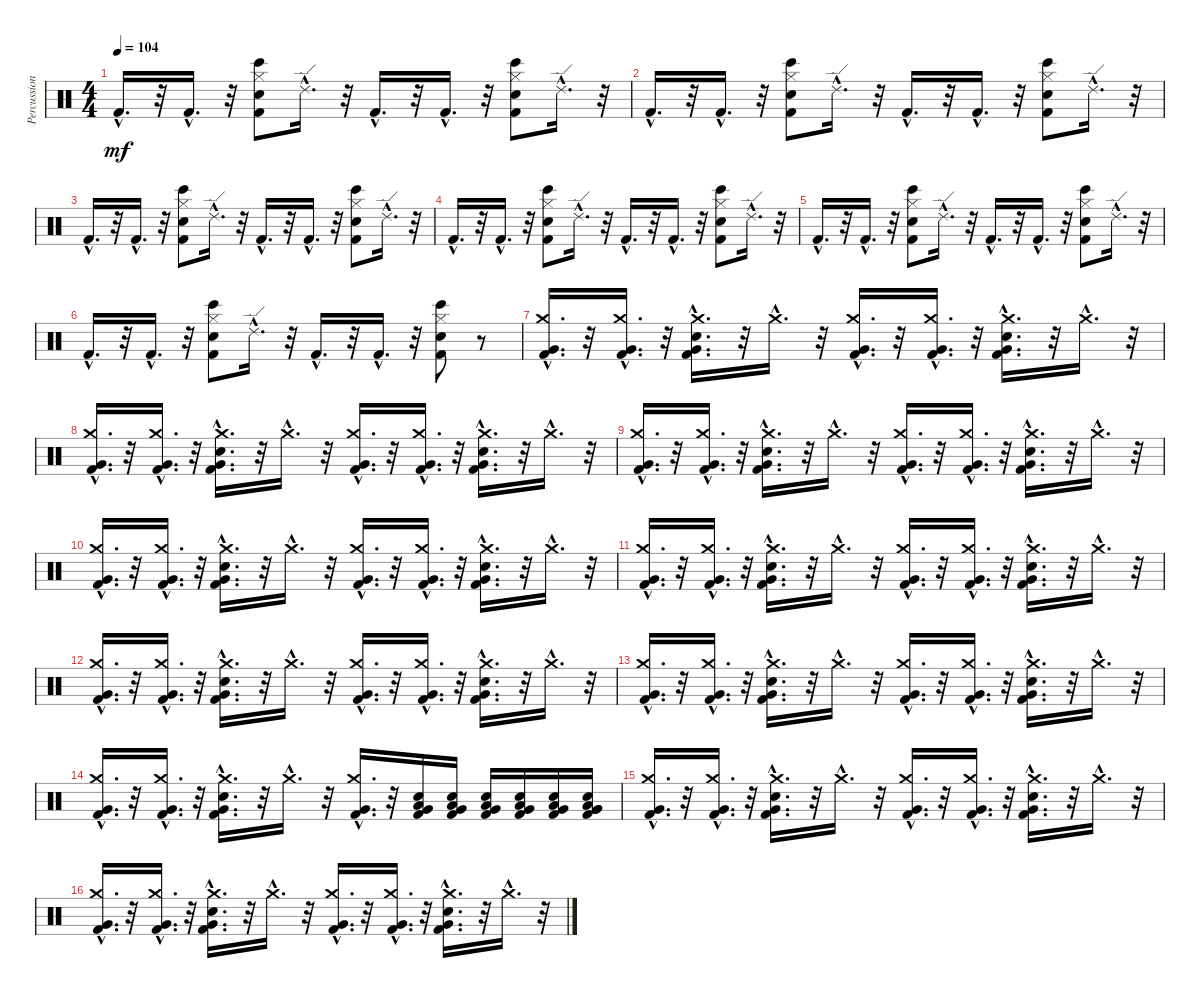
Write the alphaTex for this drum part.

\track ("Percussion" "Percussion") {instrument percussion}
\staff {score}
\articulation defaults
\ts (4 4)
\tempo 104
\clef neutral
\ks c "Kick (hit) 2"{hac}.16{d dy mf}
r.32 "Kick (hit) 2"{hac}.16{d} r.32 ("Hand Clap (hit)" "Kick (hit) 2" "Hi-Hat (closed)" "Bongo High (hit)").8 "Ride (edge) 2"{hac}.16{d} r.32 "Kick (hit) 2"{hac}.16{d} r.32 "Kick (hit) 2"{hac}.16{d} r.32 ("Bongo High (hit)" "Hi-Hat (closed)" "Hand Clap (hit)" "Kick (hit) 2").8 "Ride (edge) 2"{hac}.16{d} r.32 |
"Kick (hit) 2"{hac}.16{d} r.32 "Kick (hit) 2"{hac}.16{d} r.32 ("Kick (hit) 2" "Hand Clap (hit)" "Hi-Hat (closed)" "Bongo High (hit)").8 "Ride (edge) 2"{hac}.16{d} r.32 "Kick (hit) 2"{hac}.16{d} r.32 "Kick (hit) 2"{hac}.16{d} r.32 ("Bongo High (hit)" "Hi-Hat (closed)" "Hand Clap (hit)" "Kick (hit) 2").8 "Ride (edge) 2"{hac}.16{d} r.32 |
"Kick (hit) 2"{hac}.16{d} r.32 "Kick (hit) 2"{hac}.16{d} r.32 ("Kick (hit) 2" "Hand Clap (hit)" "Hi-Hat (closed)" "Bongo High (hit)").8 "Ride (edge) 2"{hac}.16{d} r.32 "Kick (hit) 2"{hac}.16{d} r.32 "Kick (hit) 2"{hac}.16{d} r.32 ("Hi-Hat (closed)" "Hand Clap (hit)" "Kick (hit) 2" "Bongo High (hit)").8 "Ride (edge) 2"{hac}.16{d} r.32 |
"Kick (hit) 2"{hac}.16{d} r.32 "Kick (hit) 2"{hac}.16{d} r.32 ("Kick (hit) 2" "Hand Clap (hit)" "Hi-Hat (closed)" "Bongo High (hit)").8 "Ride (edge) 2"{hac}.16{d} r.32 "Kick (hit) 2"{hac}.16{d} r.32 "Kick (hit) 2"{hac}.16{d} r.32 ("Bongo High (hit)" "Hi-Hat (closed)" "Hand Clap (hit)" "Kick (hit) 2").8 "Ride (edge) 2"{hac}.16{d} r.32 |
"Kick (hit) 2"{hac}.16{d} r.32 "Kick (hit) 2"{hac}.16{d} r.32 ("Kick (hit) 2" "Hand Clap (hit)" "Hi-Hat (closed)" "Bongo High (hit)").8 "Ride (edge) 2"{hac}.16{d} r.32 "Kick (hit) 2"{hac}.16{d} r.32 "Kick (hit) 2"{hac}.16{d} r.32 ("Bongo High (hit)" "Hi-Hat (closed)" "Hand Clap (hit)" "Kick (hit) 2").8 "Ride (edge) 2"{hac}.16{d} r.32 |
"Kick (hit) 2"{hac}.16{d} r.32 "Kick (hit) 2"{hac}.16{d} r.32 ("Kick (hit) 2" "Hand Clap (hit)" "Hi-Hat (closed)" "Bongo High (hit)").8 "Ride (edge) 2"{hac}.16{d} r.32 "Kick (hit) 2"{hac}.16{d} r.32 "Kick (hit) 2"{hac}.16{d} r.32 ("Bongo High (hit)" "Hi-Hat (closed)" "Hand Clap (hit)" "Kick (hit) 2").8 r.8 |
("Crash medium (hit)"{hac} "Very Low Tom (hit)"{hac} "Kick (hit) 2"{hac}).16{d} r.32 ("Crash medium (hit)"{hac} "Very Low Tom (hit)"{hac} "Kick (hit) 2"{hac}).16{d} r.32 ("Very Low Tom (hit)"{hac} "Crash medium (hit)"{hac} "Kick (hit) 2"{hac} "Electric Snare (hit)"{hac}).16{d} r.32 "Crash medium (hit)"{hac}.16{d} r.32 ("Crash medium (hit)"{hac} "Very Low Tom (hit)"{hac} "Kick (hit) 2"{hac}).16{d} r.32 ("Crash medium (hit)"{hac} "Very Low Tom (hit)"{hac} "Kick (hit) 2"{hac}).16{d} r.32 ("Very Low Tom (hit)"{hac} "Crash medium (hit)"{hac} "Kick (hit) 2"{hac} "Electric Snare (hit)"{hac}).16{d} r.32 "Crash medium (hit)"{hac}.16{d} r.32 |
("Crash medium (hit)"{hac} "Very Low Tom (hit)"{hac} "Kick (hit) 2"{hac}).16{d} r.32 ("Crash medium (hit)"{hac} "Very Low Tom (hit)"{hac} "Kick (hit) 2"{hac}).16{d} r.32 ("Very Low Tom (hit)"{hac} "Crash medium (hit)"{hac} "Kick (hit) 2"{hac} "Electric Snare (hit)"{hac}).16{d} r.32 "Crash medium (hit)"{hac}.16{d} r.32 ("Crash medium (hit)"{hac} "Very Low Tom (hit)"{hac} "Kick (hit) 2"{hac}).16{d} r.32 ("Crash medium (hit)"{hac} "Very Low Tom (hit)"{hac} "Kick (hit) 2"{hac}).16{d} r.32 ("Very Low Tom (hit)"{hac} "Crash medium (hit)"{hac} "Kick (hit) 2"{hac} "Electric Snare (hit)"{hac}).16{d} r.32 "Crash medium (hit)"{hac}.16{d} r.32 |
("Crash medium (hit)"{hac} "Very Low Tom (hit)"{hac} "Kick (hit) 2"{hac}).16{d} r.32 ("Crash medium (hit)"{hac} "Very Low Tom (hit)"{hac} "Kick (hit) 2"{hac}).16{d} r.32 ("Very Low Tom (hit)"{hac} "Crash medium (hit)"{hac} "Kick (hit) 2"{hac} "Electric Snare (hit)"{hac}).16{d} r.32 "Crash medium (hit)"{hac}.16{d} r.32 ("Crash medium (hit)"{hac} "Very Low Tom (hit)"{hac} "Kick (hit) 2"{hac}).16{d} r.32 ("Crash medium (hit)"{hac} "Very Low Tom (hit)"{hac} "Kick (hit) 2"{hac}).16{d} r.32 ("Very Low Tom (hit)"{hac} "Crash medium (hit)"{hac} "Kick (hit) 2"{hac} "Electric Snare (hit)"{hac}).16{d} r.32 "Crash medium (hit)"{hac}.16{d} r.32 |
("Crash medium (hit)"{hac} "Very Low Tom (hit)"{hac} "Kick (hit) 2"{hac}).16{d} r.32 ("Crash medium (hit)"{hac} "Very Low Tom (hit)"{hac} "Kick (hit) 2"{hac}).16{d} r.32 ("Very Low Tom (hit)"{hac} "Crash medium (hit)"{hac} "Kick (hit) 2"{hac} "Electric Snare (hit)"{hac}).16{d} r.32 "Crash medium (hit)"{hac}.16{d} r.32 ("Crash medium (hit)"{hac} "Very Low Tom (hit)"{hac} "Kick (hit) 2"{hac}).16{d} r.32 ("Crash medium (hit)"{hac} "Very Low Tom (hit)"{hac} "Kick (hit) 2"{hac}).16{d} r.32 ("Very Low Tom (hit)"{hac} "Crash medium (hit)"{hac} "Kick (hit) 2"{hac} "Electric Snare (hit)"{hac}).16{d} r.32 "Crash medium (hit)"{hac}.16{d} r.32 |
("Crash medium (hit)"{hac} "Very Low Tom (hit)"{hac} "Kick (hit) 2"{hac}).16{d} r.32 ("Crash medium (hit)"{hac} "Very Low Tom (hit)"{hac} "Kick (hit) 2"{hac}).16{d} r.32 ("Very Low Tom (hit)"{hac} "Crash medium (hit)"{hac} "Kick (hit) 2"{hac} "Electric Snare (hit)"{hac}).16{d} r.32 "Crash medium (hit)"{hac}.16{d} r.32 ("Crash medium (hit)"{hac} "Very Low Tom (hit)"{hac} "Kick (hit) 2"{hac}).16{d} r.32 ("Crash medium (hit)"{hac} "Very Low Tom (hit)"{hac} "Kick (hit) 2"{hac}).16{d} r.32 ("Very Low Tom (hit)"{hac} "Crash medium (hit)"{hac} "Kick (hit) 2"{hac} "Electric Snare (hit)"{hac}).16{d} r.32 "Crash medium (hit)"{hac}.16{d} r.32 |
("Crash medium (hit)"{hac} "Very Low Tom (hit)"{hac} "Kick (hit) 2"{hac}).16{d} r.32 ("Crash medium (hit)"{hac} "Very Low Tom (hit)"{hac} "Kick (hit) 2"{hac}).16{d} r.32 ("Very Low Tom (hit)"{hac} "Crash medium (hit)"{hac} "Kick (hit) 2"{hac} "Electric Snare (hit)"{hac}).16{d} r.32 "Crash medium (hit)"{hac}.16{d} r.32 ("Crash medium (hit)"{hac} "Very Low Tom (hit)"{hac} "Kick (hit) 2"{hac}).16{d} r.32 ("Crash medium (hit)"{hac} "Very Low Tom (hit)"{hac} "Kick (hit) 2"{hac}).16{d} r.32 ("Very Low Tom (hit)"{hac} "Crash medium (hit)"{hac} "Kick (hit) 2"{hac} "Electric Snare (hit)"{hac}).16{d} r.32 "Crash medium (hit)"{hac}.16{d} r.32 |
("Crash medium (hit)"{hac} "Very Low Tom (hit)"{hac} "Kick (hit) 2"{hac}).16{d} r.32 ("Crash medium (hit)"{hac} "Very Low Tom (hit)"{hac} "Kick (hit) 2"{hac}).16{d} r.32 ("Very Low Tom (hit)"{hac} "Crash medium (hit)"{hac} "Kick (hit) 2"{hac} "Electric Snare (hit)"{hac}).16{d} r.32 "Crash medium (hit)"{hac}.16{d} r.32 ("Crash medium (hit)"{hac} "Very Low Tom (hit)"{hac} "Kick (hit) 2"{hac}).16{d} r.32 ("Crash medium (hit)"{hac} "Very Low Tom (hit)"{hac} "Kick (hit) 2"{hac}).16{d} r.32 ("Very Low Tom (hit)"{hac} "Crash medium (hit)"{hac} "Kick (hit) 2"{hac} "Electric Snare (hit)"{hac}).16{d} r.32 "Crash medium (hit)"{hac}.16{d} r.32 |
("Crash medium (hit)"{hac} "Kick (hit) 2"{hac} "Very Low Tom (hit)"{hac}).16{d} r.32 ("Kick (hit) 2"{hac} "Very Low Tom (hit)"{hac} "Crash medium (hit)"{hac}).16{d} r.32 ("Very Low Tom (hit)"{hac} "Electric Snare (hit)"{hac} "Crash medium (hit)"{hac} "Kick (hit) 2"{hac}).16{d} r.32 "Crash medium (hit)"{hac}.16{d} r.32 ("Very Low Tom (hit)"{hac} "Kick (hit) 2"{hac} "Crash medium (hit)"{hac}).16{d} r.32 ("Low Floor Tom (hit)" "Kick (hit) 2" "Electric Snare (hit)" "Very Low Tom (hit)").16 ("Low Floor Tom (hit)" "Kick (hit) 2" "Electric Snare (hit)" "Very Low Tom (hit)").16 ("Low Floor Tom (hit)" "Kick (hit) 2" "Electric Snare (hit)" "Very Low Tom (hit)").16 ("Low Floor Tom (hit)" "Kick (hit) 2" "Electric Snare (hit)" "Very Low Tom (hit)").16 ("Low Floor Tom (hit)" "Kick (hit) 2" "Electric Snare (hit)" "Very Low Tom (hit)").16 ("Low Floor Tom (hit)" "Very Low Tom (hit)" "Kick (hit) 2" "Electric Snare (hit)" "Very Low Tom (hit)").16 |
("Crash medium (hit)"{hac} "Very Low Tom (hit)"{hac} "Kick (hit) 2"{hac}).16{d} r.32 ("Crash medium (hit)"{hac} "Very Low Tom (hit)"{hac} "Kick (hit) 2"{hac}).16{d} r.32 ("Very Low Tom (hit)"{hac} "Crash medium (hit)"{hac} "Kick (hit) 2"{hac} "Electric Snare (hit)"{hac}).16{d} r.32 "Crash medium (hit)"{hac}.16{d} r.32 ("Crash medium (hit)"{hac} "Very Low Tom (hit)"{hac} "Kick (hit) 2"{hac}).16{d} r.32 ("Crash medium (hit)"{hac} "Very Low Tom (hit)"{hac} "Kick (hit) 2"{hac}).16{d} r.32 ("Very Low Tom (hit)"{hac} "Crash medium (hit)"{hac} "Kick (hit) 2"{hac} "Electric Snare (hit)"{hac}).16{d} r.32 "Crash medium (hit)"{hac}.16{d} r.32 |
("Crash medium (hit)"{hac} "Very Low Tom (hit)"{hac} "Kick (hit) 2"{hac}).16{d} r.32 ("Crash medium (hit)"{hac} "Very Low Tom (hit)"{hac} "Kick (hit) 2"{hac}).16{d} r.32 ("Very Low Tom (hit)"{hac} "Crash medium (hit)"{hac} "Kick (hit) 2"{hac} "Electric Snare (hit)"{hac}).16{d} r.32 "Crash medium (hit)"{hac}.16{d} r.32 ("Crash medium (hit)"{hac} "Very Low Tom (hit)"{hac} "Kick (hit) 2"{hac}).16{d} r.32 ("Crash medium (hit)"{hac} "Very Low Tom (hit)"{hac} "Kick (hit) 2"{hac}).16{d} r.32 ("Very Low Tom (hit)"{hac} "Crash medium (hit)"{hac} "Kick (hit) 2"{hac} "Electric Snare (hit)"{hac}).16{d} r.32 "Crash medium (hit)"{hac}.16{d} r.32
